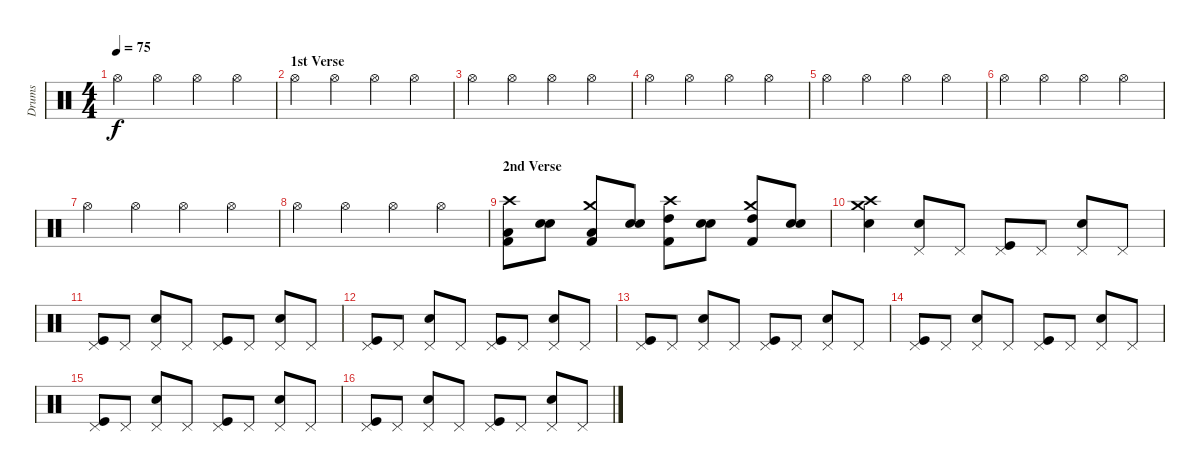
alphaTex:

\track ("Drums" "Drums") {instrument percussion}
\staff {score}
\articulation defaults
\ts (4 4)
\tempo 75
\clef neutral
\ks c "Hi-Hat (open)".4{dy f} "Hi-Hat (open)".4 "Hi-Hat (open)".4 "Hi-Hat (open)".4
|
\section ("" "1st Verse")
"Hi-Hat (open)".4 "Hi-Hat (open)".4 "Hi-Hat (open)".4 "Hi-Hat (open)".4 |
"Hi-Hat (open)".4 "Hi-Hat (open)".4 "Hi-Hat (open)".4 "Hi-Hat (open)".4 |
"Hi-Hat (open)".4 "Hi-Hat (open)".4 "Hi-Hat (open)".4 "Hi-Hat (open)".4 |
"Hi-Hat (open)".4 "Hi-Hat (open)".4 "Hi-Hat (open)".4 "Hi-Hat (open)".4 |
"Hi-Hat (open)".4 "Hi-Hat (open)".4 "Hi-Hat (open)".4 "Hi-Hat (open)".4 |
"Hi-Hat (open)".4 "Hi-Hat (open)".4 "Hi-Hat (open)".4 "Hi-Hat (open)".4 |
"Hi-Hat (open)".4 "Hi-Hat (open)".4 "Hi-Hat (open)".4 "Hi-Hat (open)".4 |
\section ("" "2nd Verse")
("Crash high (hit)" "Kick (hit) 2" "Low Floor Tom (hit)").8 ("Snare (hit) 2" "Snare (hit) 2").8 ("Crash medium (hit)" "Kick (hit) 2" "Low Tom (hit)").8 ("Snare (hit) 2" "Snare (hit) 2").8 ("Crash high (hit)" "Kick (hit) 2" "High Tom (hit)").8 ("Snare (hit) 2" "Snare (hit) 2").8 ("Crash medium (hit)" "Kick (hit) 2" "High Tom (hit)").8 ("Snare (hit) 2" "Snare (hit) 2").8 |
("Crash medium (hit)" "Crash high (hit)" "Snare (hit) 2").4 ("Pedal Hi-Hat (hit)" "Snare (hit) 2").8 "Pedal Hi-Hat (hit)".8 ("Pedal Hi-Hat (hit)" "Kick (hit)").8 "Pedal Hi-Hat (hit)".8 ("Pedal Hi-Hat (hit)" "Snare (hit) 2").8 "Pedal Hi-Hat (hit)".8 |
("Pedal Hi-Hat (hit)" "Kick (hit)").8 "Pedal Hi-Hat (hit)".8 ("Pedal Hi-Hat (hit)" "Snare (hit) 2").8 "Pedal Hi-Hat (hit)".8 ("Pedal Hi-Hat (hit)" "Kick (hit)").8 "Pedal Hi-Hat (hit)".8 ("Pedal Hi-Hat (hit)" "Snare (hit) 2").8 "Pedal Hi-Hat (hit)".8 |
("Pedal Hi-Hat (hit)" "Kick (hit)").8 "Pedal Hi-Hat (hit)".8 ("Pedal Hi-Hat (hit)" "Snare (hit) 2").8 "Pedal Hi-Hat (hit)".8 ("Pedal Hi-Hat (hit)" "Kick (hit)").8 "Pedal Hi-Hat (hit)".8 ("Pedal Hi-Hat (hit)" "Snare (hit) 2").8 "Pedal Hi-Hat (hit)".8 |
("Pedal Hi-Hat (hit)" "Kick (hit)").8 "Pedal Hi-Hat (hit)".8 ("Pedal Hi-Hat (hit)" "Snare (hit) 2").8 "Pedal Hi-Hat (hit)".8 ("Pedal Hi-Hat (hit)" "Kick (hit)").8 "Pedal Hi-Hat (hit)".8 ("Pedal Hi-Hat (hit)" "Snare (hit) 2").8 "Pedal Hi-Hat (hit)".8 |
("Pedal Hi-Hat (hit)" "Kick (hit)").8 "Pedal Hi-Hat (hit)".8 ("Pedal Hi-Hat (hit)" "Snare (hit) 2").8 "Pedal Hi-Hat (hit)".8 ("Pedal Hi-Hat (hit)" "Kick (hit)").8 "Pedal Hi-Hat (hit)".8 ("Pedal Hi-Hat (hit)" "Snare (hit) 2").8 "Pedal Hi-Hat (hit)".8 |
("Pedal Hi-Hat (hit)" "Kick (hit)").8 "Pedal Hi-Hat (hit)".8 ("Pedal Hi-Hat (hit)" "Snare (hit) 2").8 "Pedal Hi-Hat (hit)".8 ("Pedal Hi-Hat (hit)" "Kick (hit)").8 "Pedal Hi-Hat (hit)".8 ("Pedal Hi-Hat (hit)" "Snare (hit) 2").8 "Pedal Hi-Hat (hit)".8 |
("Pedal Hi-Hat (hit)" "Kick (hit)").8 "Pedal Hi-Hat (hit)".8 ("Pedal Hi-Hat (hit)" "Snare (hit) 2").8 "Pedal Hi-Hat (hit)".8 ("Pedal Hi-Hat (hit)" "Kick (hit)").8 "Pedal Hi-Hat (hit)".8 ("Pedal Hi-Hat (hit)" "Snare (hit) 2").8 "Pedal Hi-Hat (hit)".8
